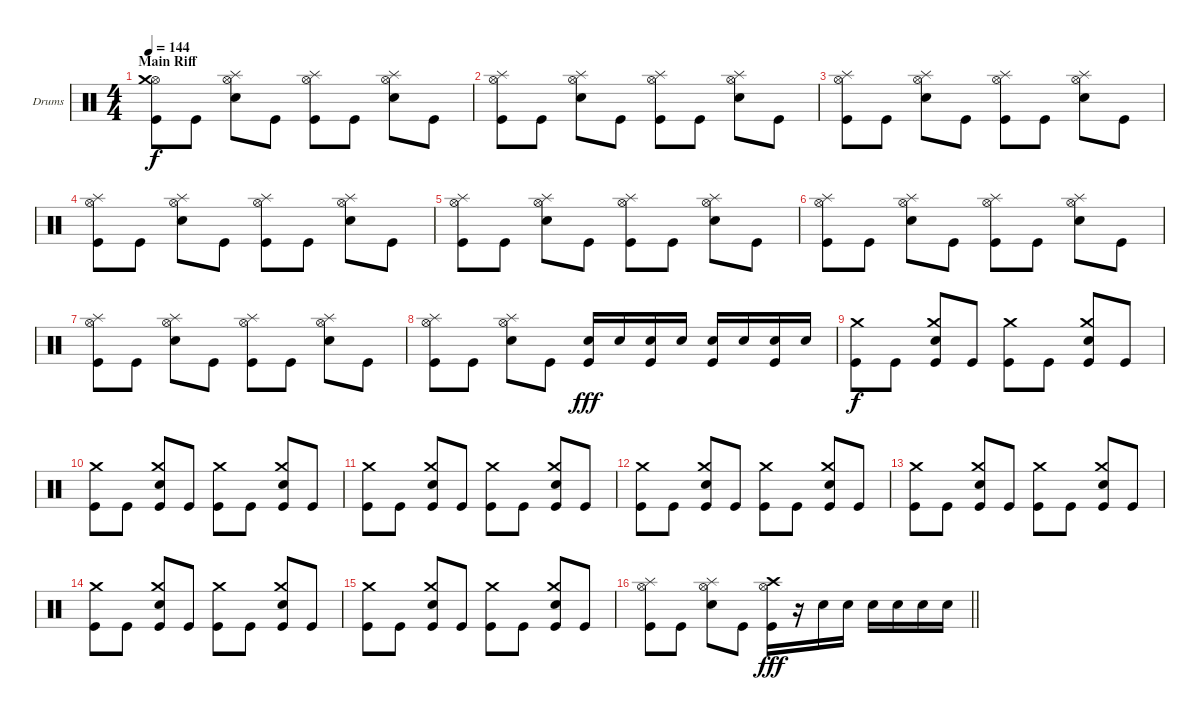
\bracketExtendMode groupsimilarinstruments
\firstSystemTrackNameOrientation horizontal
\otherSystemsTrackNameOrientation horizontal
\track ("Drumkit" "Drums") {instrument percussion}
\staff {score}
\articulation defaults
\ts (4 4)
\section ("" "Main Riff")
\tempo 144
\clef neutral
\ks c
("Kick (hit)" "Hi-Hat (open)" "Crash medium (hit)").8{dy f} "Kick (hit)".8 ("Snare (hit) 2" "Hi-Hat (open)" "Splash (hit)").8 "Kick (hit)".8 ("Kick (hit)" "Hi-Hat (open)" "Splash (hit)").8 "Kick (hit)".8 ("Snare (hit) 2" "Hi-Hat (open)" "Splash (hit)").8 "Kick (hit)".8 |
("Kick (hit)" "Hi-Hat (open)" "Splash (hit)").8 "Kick (hit)".8 ("Snare (hit) 2" "Hi-Hat (open)" "Splash (hit)").8 "Kick (hit)".8 ("Kick (hit)" "Hi-Hat (open)" "Splash (hit)").8 "Kick (hit)".8 ("Snare (hit) 2" "Hi-Hat (open)" "Splash (hit)").8 "Kick (hit)".8 |
("Kick (hit)" "Hi-Hat (open)" "Splash (hit)").8 "Kick (hit)".8 ("Snare (hit) 2" "Hi-Hat (open)" "Splash (hit)").8 "Kick (hit)".8 ("Kick (hit)" "Hi-Hat (open)" "Splash (hit)").8 "Kick (hit)".8 ("Snare (hit) 2" "Hi-Hat (open)" "Splash (hit)").8 "Kick (hit)".8 |
("Kick (hit)" "Hi-Hat (open)" "Splash (hit)").8 "Kick (hit)".8 ("Snare (hit) 2" "Hi-Hat (open)" "Splash (hit)").8 "Kick (hit)".8 ("Kick (hit)" "Hi-Hat (open)" "Splash (hit)").8 "Kick (hit)".8 ("Snare (hit) 2" "Hi-Hat (open)" "Splash (hit)").8 "Kick (hit)".8 |
("Kick (hit)" "Hi-Hat (open)" "Splash (hit)").8 "Kick (hit)".8 ("Snare (hit) 2" "Hi-Hat (open)" "Splash (hit)").8 "Kick (hit)".8 ("Kick (hit)" "Hi-Hat (open)" "Splash (hit)").8 "Kick (hit)".8 ("Snare (hit) 2" "Hi-Hat (open)" "Splash (hit)").8 "Kick (hit)".8 |
("Kick (hit)" "Hi-Hat (open)" "Splash (hit)").8 "Kick (hit)".8 ("Snare (hit) 2" "Hi-Hat (open)" "Splash (hit)").8 "Kick (hit)".8 ("Kick (hit)" "Hi-Hat (open)" "Splash (hit)").8 "Kick (hit)".8 ("Snare (hit) 2" "Hi-Hat (open)" "Splash (hit)").8 "Kick (hit)".8 |
("Kick (hit)" "Hi-Hat (open)" "Splash (hit)").8 "Kick (hit)".8 ("Snare (hit) 2" "Hi-Hat (open)" "Splash (hit)").8 "Kick (hit)".8 ("Kick (hit)" "Hi-Hat (open)" "Splash (hit)").8 "Kick (hit)".8 ("Snare (hit) 2" "Hi-Hat (open)" "Splash (hit)").8 "Kick (hit)".8 |
("Kick (hit)" "Hi-Hat (open)" "Splash (hit)").8 "Kick (hit)".8 ("Snare (hit) 2" "Hi-Hat (open)" "Splash (hit)").8 "Kick (hit)".8 ("Snare (hit) 2" "Kick (hit)").16{dy fff} "Snare (hit) 2".16 ("Kick (hit)" "Snare (hit) 2").16 "Snare (hit) 2".16 ("Snare (hit) 2" "Kick (hit)").16 "Snare (hit) 2".16 ("Snare (hit) 2" "Kick (hit)").16 "Snare (hit) 2".16 |
("Kick (hit)" "Crash medium (hit)").8{dy f} "Kick (hit)".8 ("Snare (hit) 2" "Kick (hit)" "Crash medium (hit)").8 "Kick (hit)".8 ("Kick (hit)" "Crash medium (hit)").8 "Kick (hit)".8 ("Snare (hit) 2" "Kick (hit)" "Crash medium (hit)").8 "Kick (hit)".8 |
("Kick (hit)" "Crash medium (hit)").8 "Kick (hit)".8 ("Snare (hit) 2" "Kick (hit)" "Crash medium (hit)").8 "Kick (hit)".8 ("Kick (hit)" "Crash medium (hit)").8 "Kick (hit)".8 ("Snare (hit) 2" "Kick (hit)" "Crash medium (hit)").8 "Kick (hit)".8 |
("Kick (hit)" "Crash medium (hit)").8 "Kick (hit)".8 ("Snare (hit) 2" "Kick (hit)" "Crash medium (hit)").8 "Kick (hit)".8 ("Kick (hit)" "Crash medium (hit)").8 "Kick (hit)".8 ("Snare (hit) 2" "Kick (hit)" "Crash medium (hit)").8 "Kick (hit)".8 |
("Kick (hit)" "Crash medium (hit)").8 "Kick (hit)".8 ("Snare (hit) 2" "Kick (hit)" "Crash medium (hit)").8 "Kick (hit)".8 ("Kick (hit)" "Crash medium (hit)").8 "Kick (hit)".8 ("Snare (hit) 2" "Kick (hit)" "Crash medium (hit)").8 "Kick (hit)".8 |
("Kick (hit)" "Crash medium (hit)").8 "Kick (hit)".8 ("Snare (hit) 2" "Kick (hit)" "Crash medium (hit)").8 "Kick (hit)".8 ("Kick (hit)" "Crash medium (hit)").8 "Kick (hit)".8 ("Snare (hit) 2" "Kick (hit)" "Crash medium (hit)").8 "Kick (hit)".8 |
("Kick (hit)" "Crash medium (hit)").8 "Kick (hit)".8 ("Snare (hit) 2" "Kick (hit)" "Crash medium (hit)").8 "Kick (hit)".8 ("Kick (hit)" "Crash medium (hit)").8 "Kick (hit)".8 ("Snare (hit) 2" "Kick (hit)" "Crash medium (hit)").8 "Kick (hit)".8 |
("Kick (hit)" "Crash medium (hit)").8 "Kick (hit)".8 ("Snare (hit) 2" "Kick (hit)" "Crash medium (hit)").8 "Kick (hit)".8 ("Kick (hit)" "Crash medium (hit)").8 "Kick (hit)".8 ("Snare (hit) 2" "Kick (hit)" "Crash medium (hit)").8 "Kick (hit)".8 |
\barLineRight lightlight
("Kick (hit)" "Hi-Hat (open)" "Splash (hit)").8 "Kick (hit)".8 ("Snare (hit) 2" "Hi-Hat (open)" "Splash (hit)").8 "Kick (hit)".8 ("Kick (hit)" "Hi-Hat (open)" "Crash high (hit)").16{dy fff} r.16 "Snare (hit) 2".16 "Snare (hit) 2".16 "Snare (hit) 2".16 "Snare (hit) 2".16 "Snare (hit) 2".16 "Snare (hit) 2".16
